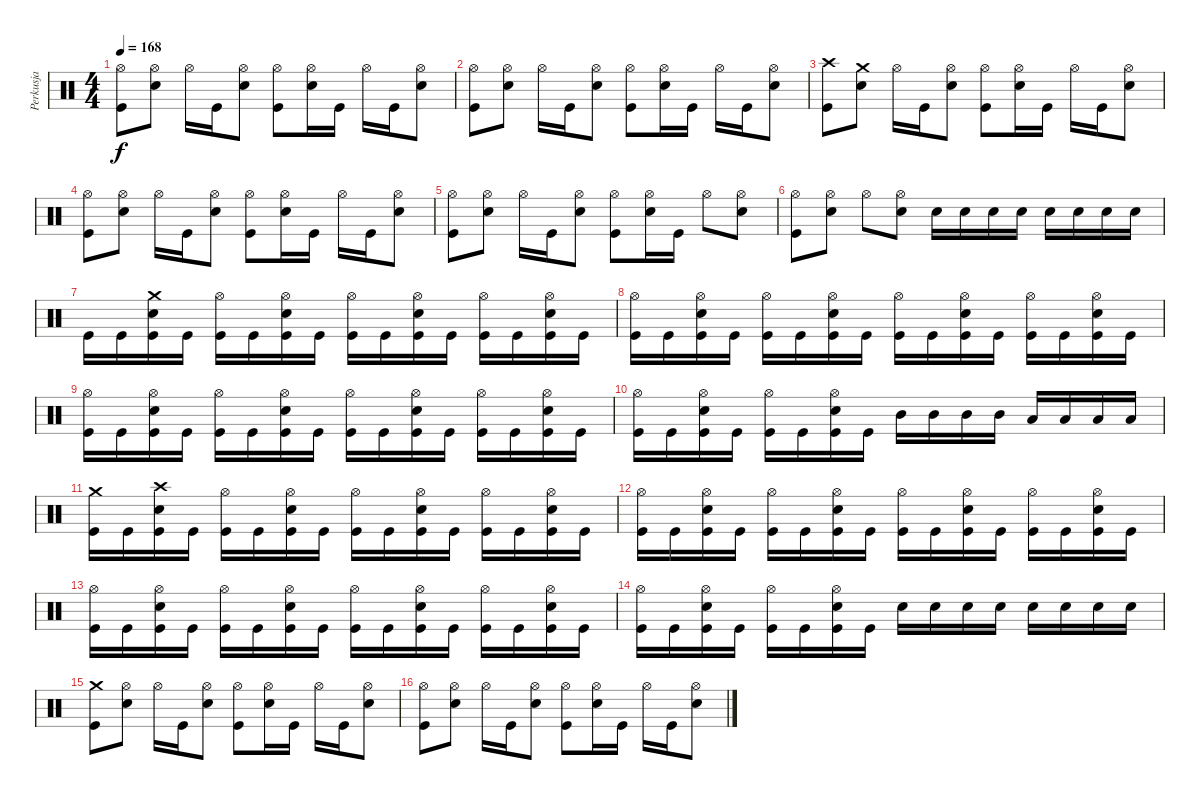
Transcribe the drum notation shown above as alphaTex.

\track ("Perkusja" "Perkusja") {instrument percussion}
\staff {score}
\articulation defaults
\ts (4 4)
\tempo 168
\clef neutral
\ks c
("Kick (hit)" "Hi-Hat (open)").8{dy f} ("Hi-Hat (open)" "Snare (hit) 2").8 "Hi-Hat (open)".16 "Kick (hit)".16 ("Hi-Hat (open)" "Snare (hit) 2").8 ("Kick (hit)" "Hi-Hat (open)").8 ("Hi-Hat (open)" "Snare (hit) 2").16 "Kick (hit)".16 "Hi-Hat (open)".16 "Kick (hit)".16 ("Hi-Hat (open)" "Snare (hit) 2").8 |
("Kick (hit)" "Hi-Hat (open)").8 ("Hi-Hat (open)" "Snare (hit) 2").8 "Hi-Hat (open)".16 "Kick (hit)".16 ("Hi-Hat (open)" "Snare (hit) 2").8 ("Kick (hit)" "Hi-Hat (open)").8 ("Hi-Hat (open)" "Snare (hit) 2").16 "Kick (hit)".16 "Hi-Hat (open)".16 "Kick (hit)".16 ("Hi-Hat (open)" "Snare (hit) 2").8 |
("Kick (hit)" "Crash high (hit)").8 ("Crash medium (hit)" "Snare (hit) 2").8 "Hi-Hat (open)".16 "Kick (hit)".16 ("Hi-Hat (open)" "Snare (hit) 2").8 ("Kick (hit)" "Hi-Hat (open)").8 ("Hi-Hat (open)" "Snare (hit) 2").16 "Kick (hit)".16 "Hi-Hat (open)".16 "Kick (hit)".16 ("Hi-Hat (open)" "Snare (hit) 2").8 |
("Kick (hit)" "Hi-Hat (open)").8 ("Hi-Hat (open)" "Snare (hit) 2").8 "Hi-Hat (open)".16 "Kick (hit)".16 ("Hi-Hat (open)" "Snare (hit) 2").8 ("Kick (hit)" "Hi-Hat (open)").8 ("Hi-Hat (open)" "Snare (hit) 2").16 "Kick (hit)".16 "Hi-Hat (open)".16 "Kick (hit)".16 ("Hi-Hat (open)" "Snare (hit) 2").8 |
("Kick (hit)" "Hi-Hat (open)").8 ("Hi-Hat (open)" "Snare (hit) 2").8 "Hi-Hat (open)".16 "Kick (hit)".16 ("Hi-Hat (open)" "Snare (hit) 2").8 ("Kick (hit)" "Hi-Hat (open)").8 ("Hi-Hat (open)" "Snare (hit) 2").16 "Kick (hit)".16 "Hi-Hat (open)".8 ("Hi-Hat (open)" "Snare (hit) 2").8 |
("Kick (hit)" "Hi-Hat (open)").8 ("Hi-Hat (open)" "Snare (hit) 2").8 "Hi-Hat (open)".8 ("Hi-Hat (open)" "Snare (hit) 2").8 "Snare (hit) 2".16 "Snare (hit) 2".16 "Snare (hit) 2".16 "Snare (hit) 2".16 "Snare (hit) 2".16 "Snare (hit) 2".16 "Snare (hit) 2".16 "Snare (hit) 2".16 |
"Kick (hit)".16 "Kick (hit)".16 ("Kick (hit)" "Crash medium (hit)" "Snare (hit) 2").16 "Kick (hit)".16 ("Kick (hit)" "Hi-Hat (open)").16 "Kick (hit)".16 ("Kick (hit)" "Hi-Hat (open)" "Snare (hit) 2").16 "Kick (hit)".16 ("Kick (hit)" "Hi-Hat (open)").16 "Kick (hit)".16 ("Kick (hit)" "Hi-Hat (open)" "Snare (hit) 2").16 "Kick (hit)".16 ("Kick (hit)" "Hi-Hat (open)").16 "Kick (hit)".16 ("Kick (hit)" "Hi-Hat (open)" "Snare (hit) 2").16 "Kick (hit)".16 |
("Kick (hit)" "Hi-Hat (open)").16 "Kick (hit)".16 ("Kick (hit)" "Hi-Hat (open)" "Snare (hit) 2").16 "Kick (hit)".16 ("Kick (hit)" "Hi-Hat (open)").16 "Kick (hit)".16 ("Kick (hit)" "Hi-Hat (open)" "Snare (hit) 2").16 "Kick (hit)".16 ("Kick (hit)" "Hi-Hat (open)").16 "Kick (hit)".16 ("Kick (hit)" "Hi-Hat (open)" "Snare (hit) 2").16 "Kick (hit)".16 ("Kick (hit)" "Hi-Hat (open)").16 "Kick (hit)".16 ("Kick (hit)" "Hi-Hat (open)" "Snare (hit) 2").16 "Kick (hit)".16 |
("Kick (hit)" "Hi-Hat (open)").16 "Kick (hit)".16 ("Kick (hit)" "Hi-Hat (open)" "Snare (hit) 2").16 "Kick (hit)".16 ("Kick (hit)" "Hi-Hat (open)").16 "Kick (hit)".16 ("Kick (hit)" "Hi-Hat (open)" "Snare (hit) 2").16 "Kick (hit)".16 ("Kick (hit)" "Hi-Hat (open)").16 "Kick (hit)".16 ("Kick (hit)" "Hi-Hat (open)" "Snare (hit) 2").16 "Kick (hit)".16 ("Kick (hit)" "Hi-Hat (open)").16 "Kick (hit)".16 ("Kick (hit)" "Hi-Hat (open)" "Snare (hit) 2").16 "Kick (hit)".16 |
("Kick (hit)" "Hi-Hat (open)").16 "Kick (hit)".16 ("Kick (hit)" "Hi-Hat (open)" "Snare (hit) 2").16 "Kick (hit)".16 ("Kick (hit)" "Hi-Hat (open)").16 "Kick (hit)".16 ("Kick (hit)" "Hi-Hat (open)" "Snare (hit) 2").16 "Kick (hit)".16 "Mid Tom (hit)".16 "Mid Tom (hit)".16 "Mid Tom (hit)".16 "Mid Tom (hit)".16 "Low Tom (hit)".16 "Low Tom (hit)".16 "Low Tom (hit)".16 "Low Tom (hit)".16 |
("Kick (hit)" "Crash medium (hit)").16 "Kick (hit)".16 ("Kick (hit)" "Crash high (hit)" "Snare (hit) 2").16 "Kick (hit)".16 ("Kick (hit)" "Hi-Hat (open)").16 "Kick (hit)".16 ("Kick (hit)" "Hi-Hat (open)" "Snare (hit) 2").16 "Kick (hit)".16 ("Kick (hit)" "Hi-Hat (open)").16 "Kick (hit)".16 ("Kick (hit)" "Hi-Hat (open)" "Snare (hit) 2").16 "Kick (hit)".16 ("Kick (hit)" "Hi-Hat (open)").16 "Kick (hit)".16 ("Kick (hit)" "Hi-Hat (open)" "Snare (hit) 2").16 "Kick (hit)".16 |
("Kick (hit)" "Hi-Hat (open)").16 "Kick (hit)".16 ("Kick (hit)" "Hi-Hat (open)" "Snare (hit) 2").16 "Kick (hit)".16 ("Kick (hit)" "Hi-Hat (open)").16 "Kick (hit)".16 ("Kick (hit)" "Hi-Hat (open)" "Snare (hit) 2").16 "Kick (hit)".16 ("Kick (hit)" "Hi-Hat (open)").16 "Kick (hit)".16 ("Kick (hit)" "Hi-Hat (open)" "Snare (hit) 2").16 "Kick (hit)".16 ("Kick (hit)" "Hi-Hat (open)").16 "Kick (hit)".16 ("Kick (hit)" "Hi-Hat (open)" "Snare (hit) 2").16 "Kick (hit)".16 |
("Kick (hit)" "Hi-Hat (open)").16 "Kick (hit)".16 ("Kick (hit)" "Hi-Hat (open)" "Snare (hit) 2").16 "Kick (hit)".16 ("Kick (hit)" "Hi-Hat (open)").16 "Kick (hit)".16 ("Kick (hit)" "Hi-Hat (open)" "Snare (hit) 2").16 "Kick (hit)".16 ("Kick (hit)" "Hi-Hat (open)").16 "Kick (hit)".16 ("Kick (hit)" "Hi-Hat (open)" "Snare (hit) 2").16 "Kick (hit)".16 ("Kick (hit)" "Hi-Hat (open)").16 "Kick (hit)".16 ("Kick (hit)" "Hi-Hat (open)" "Snare (hit) 2").16 "Kick (hit)".16 |
("Kick (hit)" "Hi-Hat (open)").16 "Kick (hit)".16 ("Kick (hit)" "Hi-Hat (open)" "Snare (hit) 2").16 "Kick (hit)".16 ("Kick (hit)" "Hi-Hat (open)").16 "Kick (hit)".16 ("Kick (hit)" "Hi-Hat (open)" "Snare (hit) 2").16 "Kick (hit)".16 "Snare (hit) 2".16 "Snare (hit) 2".16 "Snare (hit) 2".16 "Snare (hit) 2".16 "Snare (hit) 2".16 "Snare (hit) 2".16 "Snare (hit) 2".16 "Snare (hit) 2".16 |
("Kick (hit)" "Crash medium (hit)").8 ("Hi-Hat (open)" "Snare (hit) 2").8 "Hi-Hat (open)".16 "Kick (hit)".16 ("Hi-Hat (open)" "Snare (hit) 2").8 ("Kick (hit)" "Hi-Hat (open)").8 ("Hi-Hat (open)" "Snare (hit) 2").16 "Kick (hit)".16 "Hi-Hat (open)".16 "Kick (hit)".16 ("Hi-Hat (open)" "Snare (hit) 2").8 |
("Kick (hit)" "Hi-Hat (open)").8 ("Hi-Hat (open)" "Snare (hit) 2").8 "Hi-Hat (open)".16 "Kick (hit)".16 ("Hi-Hat (open)" "Snare (hit) 2").8 ("Kick (hit)" "Hi-Hat (open)").8 ("Hi-Hat (open)" "Snare (hit) 2").16 "Kick (hit)".16 "Hi-Hat (open)".16 "Kick (hit)".16 ("Hi-Hat (open)" "Snare (hit) 2").8
